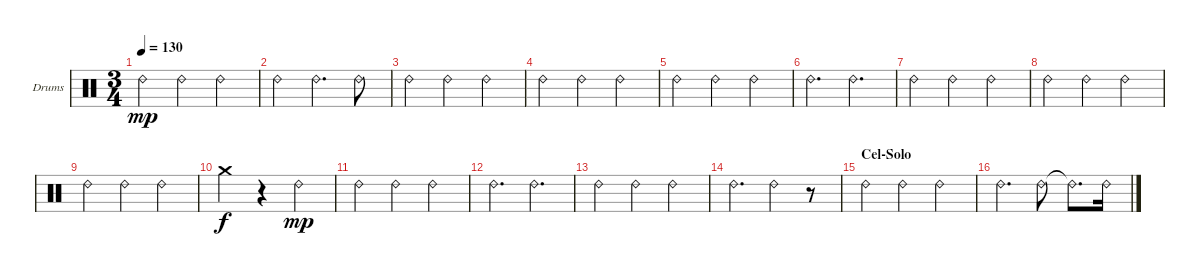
\bracketExtendMode groupsimilarinstruments
\firstSystemTrackNameOrientation horizontal
\otherSystemsTrackNameOrientation horizontal
\track ("OH" "Drums") {instrument percussion}
\staff {score}
\articulation defaults
\ts (3 4)
\tempo 130
\clef neutral
\ks c "Ride (bell) 2".4{dy mp} "Ride (bell) 2".4 "Ride (bell) 2".4
|
"Ride (bell) 2".4 "Ride (bell) 2".4{d} "Ride (bell) 2".8 |
"Ride (bell) 2".4 "Ride (bell) 2".4 "Ride (bell) 2".4 |
"Ride (bell) 2".4 "Ride (bell) 2".4 "Ride (bell) 2".4 |
"Ride (bell) 2".4 "Ride (bell) 2".4 "Ride (bell) 2".4 |
"Ride (bell) 2".4{d} "Ride (bell) 2".4{d} |
"Ride (bell) 2".4 "Ride (bell) 2".4 "Ride (bell) 2".4 |
"Ride (bell) 2".4 "Ride (bell) 2".4 "Ride (bell) 2".4 |
"Ride (bell) 2".4 "Ride (bell) 2".4 "Ride (bell) 2".4 |
"Crash medium (hit)".4{dy f} r.4 "Ride (bell) 2".4{dy mp} |
"Ride (bell) 2".4 "Ride (bell) 2".4 "Ride (bell) 2".4 |
"Ride (bell) 2".4{d} "Ride (bell) 2".4{d} |
"Ride (bell) 2".4 "Ride (bell) 2".4 "Ride (bell) 2".4 |
"Ride (bell) 2".4{d} "Ride (bell) 2".4 r.8 |
\section ("" "Cel-Solo")
"Ride (bell) 2".4 "Ride (bell) 2".4 "Ride (bell) 2".4 |
"Ride (bell) 2".4{d} "Ride (bell) 2".8 "Ride (bell) 2"{t}.8{d} "Ride (bell) 2".16
